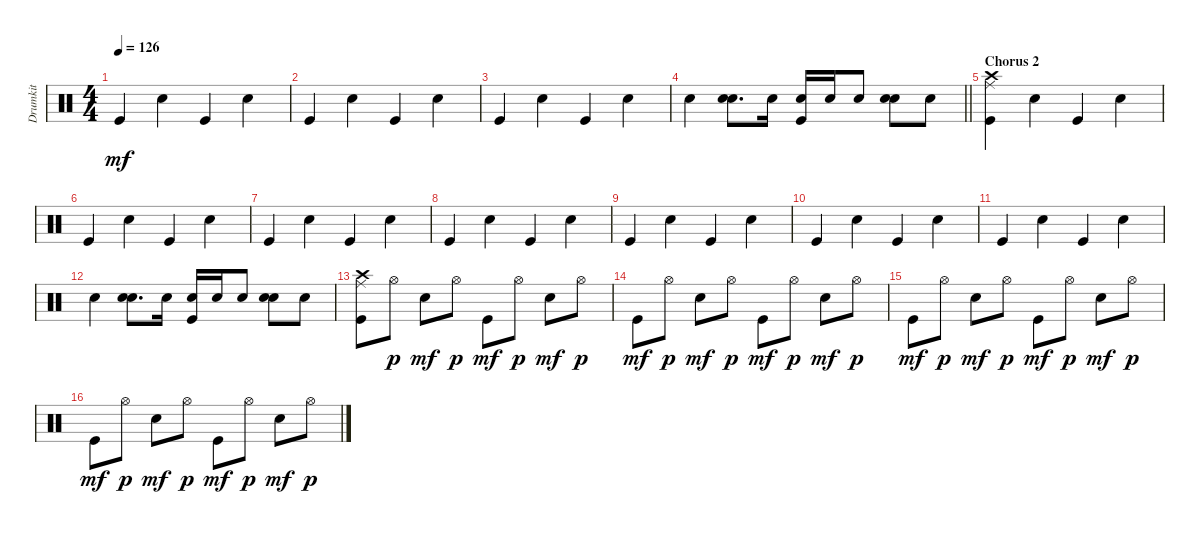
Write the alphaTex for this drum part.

\track ("Drumkit" "Drumkit") {instrument percussion}
\staff {score}
\articulation defaults
\ts (4 4)
\tempo 126
\clef neutral
\ks c "Kick (hit)".4{dy mf} "Snare (hit) 2".4 "Kick (hit)".4 "Snare (hit) 2".4
|
"Kick (hit)".4 "Snare (hit) 2".4 "Kick (hit)".4 "Snare (hit) 2".4 |
"Kick (hit)".4 "Snare (hit) 2".4 "Kick (hit)".4 "Snare (hit) 2".4 |
\barLineRight lightlight "Snare (hit) 2".4
("Snare (hit) 2" "Snare (hit) 2").8{d} "Snare (hit) 2".16 ("Kick (hit)" "Snare (hit) 2").16 "Snare (hit) 2".16 "Snare (hit) 2".8 ("Snare (hit) 2" "Snare (hit) 2").8 "Snare (hit) 2".8 |
\section ("" "Chorus 2")
("Kick (hit)" "Crash high (hit)" "Ride (middle)").4 "Snare (hit) 2".4 "Kick (hit)".4 "Snare (hit) 2".4 |
"Kick (hit)".4 "Snare (hit) 2".4 "Kick (hit)".4 "Snare (hit) 2".4 |
"Kick (hit)".4 "Snare (hit) 2".4 "Kick (hit)".4 "Snare (hit) 2".4 |
"Kick (hit)".4 "Snare (hit) 2".4 "Kick (hit)".4 "Snare (hit) 2".4 |
"Kick (hit)".4 "Snare (hit) 2".4 "Kick (hit)".4 "Snare (hit) 2".4 |
"Kick (hit)".4 "Snare (hit) 2".4 "Kick (hit)".4 "Snare (hit) 2".4 |
"Kick (hit)".4 "Snare (hit) 2".4 "Kick (hit)".4 "Snare (hit) 2".4 |
"Snare (hit) 2".4 ("Snare (hit) 2" "Snare (hit) 2").8{d} "Snare (hit) 2".16 ("Kick (hit)" "Snare (hit) 2").16 "Snare (hit) 2".16 "Snare (hit) 2".8 ("Snare (hit) 2" "Snare (hit) 2").8 "Snare (hit) 2".8 |
("Kick (hit)" "Crash high (hit)" "Ride (middle)").8 "Hi-Hat (open)".8{dy p} "Snare (hit) 2".8{dy mf} "Hi-Hat (open)".8{dy p} "Kick (hit)".8{dy mf} "Hi-Hat (open)".8{dy p} "Snare (hit) 2".8{dy mf} "Hi-Hat (open)".8{dy p} |
"Kick (hit)".8{dy mf} "Hi-Hat (open)".8{dy p} "Snare (hit) 2".8{dy mf} "Hi-Hat (open)".8{dy p} "Kick (hit)".8{dy mf} "Hi-Hat (open)".8{dy p} "Snare (hit) 2".8{dy mf} "Hi-Hat (open)".8{dy p} |
"Kick (hit)".8{dy mf} "Hi-Hat (open)".8{dy p} "Snare (hit) 2".8{dy mf} "Hi-Hat (open)".8{dy p} "Kick (hit)".8{dy mf} "Hi-Hat (open)".8{dy p} "Snare (hit) 2".8{dy mf} "Hi-Hat (open)".8{dy p} |
"Kick (hit)".8{dy mf} "Hi-Hat (open)".8{dy p} "Snare (hit) 2".8{dy mf} "Hi-Hat (open)".8{dy p} "Kick (hit)".8{dy mf} "Hi-Hat (open)".8{dy p} "Snare (hit) 2".8{dy mf} "Hi-Hat (open)".8{dy p}
